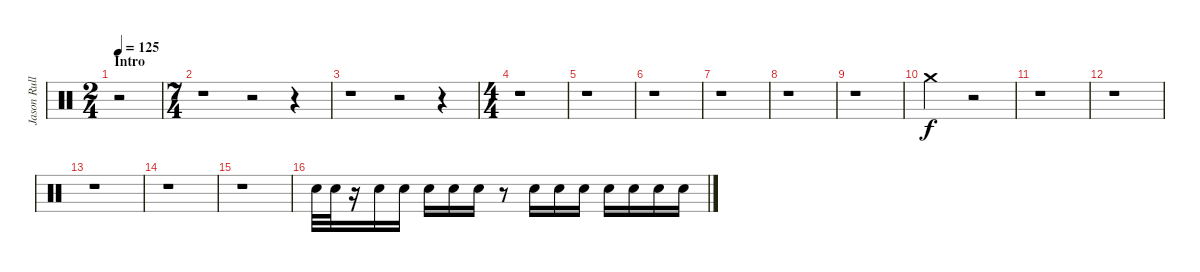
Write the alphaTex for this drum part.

\track ("Jason Rullo" "Jason Rull") {instrument percussion}
\staff {score}
\articulation defaults
\ts (2 4)
\section ("" "Intro")
\tempo 125
\clef neutral
\ks c
r.2{dy f} |
\ts (7 4)
r.1 r.2 r.4 |
r.1 r.2 r.4 |
\ts (4 4)
r.1 |
r.1 |
r.1 |
r.1 |
r.1 |
r.1 |
"Crash medium (hit)".2 r.2 |
r.1 |
r.1 |
r.1 |
r.1 |
r.1 |
"Electric Snare (hit)".32{volume 2} "Electric Snare (hit)".32 r.16 "Electric Snare (hit)".16{volume 2} "Electric Snare (hit)".16{volume 2} "Electric Snare (hit)".16{volume 3} "Electric Snare (hit)".16{volume 3} "Electric Snare (hit)".16{volume 3} r.8 "Electric Snare (hit)".16{volume 4} "Electric Snare (hit)".16{volume 4} "Electric Snare (hit)".16{volume 4} "Electric Snare (hit)".16{volume 4} "Electric Snare (hit)".16{volume 4} "Electric Snare (hit)".16{volume 5} "Electric Snare (hit)".16{volume 5}
